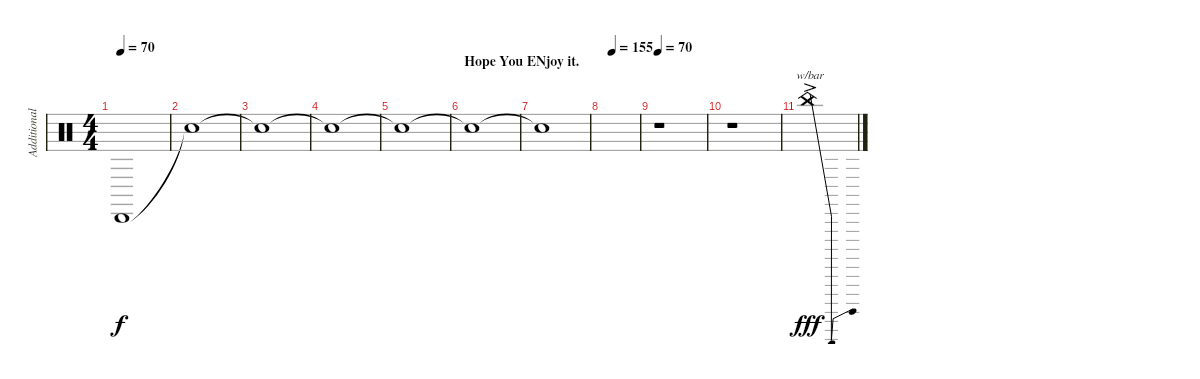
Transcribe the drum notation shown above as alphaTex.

\track ("Additional Drums" "Additional") {instrument percussion}
\staff {score}
\articulation defaults
\ts (4 4)
\tempo 70
\clef neutral
\ks c "Cabasa (hit)".1{dy f volume 16}
|
"Snare (hit)"{t}.1 |
"Snare (hit)"{t}.1 |
"Snare (hit)"{t}.1 |
"Snare (hit)"{t}.1 |
\section ("" "Hope You ENjoy it.")
"Snare (hit)"{t}.1 |
"Snare (hit)"{t}.1 |
\tempo (155 0.25)
|
\tempo 70
r.1 |
r.1 |
"China (hit)"{ac}.1{tbe (dip default 0 0 30 -24 60 0) dy fff volume 16}
